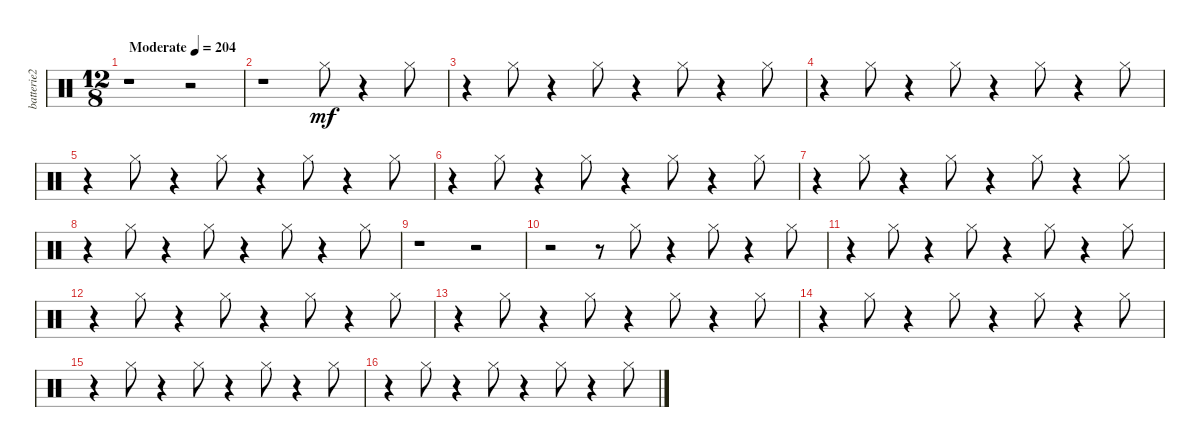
\track ("batterie2" "batterie2") {instrument percussion}
\staff {score}
\articulation defaults
\ts (12 8)
\tempo (204 "Moderate")
\clef neutral
\ks c
r.1{dy mf} r.2 |
r.1 "Hi-Hat (closed)".8 r.4 "Hi-Hat (closed)".8 |
r.4 "Hi-Hat (closed)".8 r.4 "Hi-Hat (closed)".8 r.4 "Hi-Hat (closed)".8 r.4 "Hi-Hat (closed)".8 |
r.4 "Hi-Hat (closed)".8 r.4 "Hi-Hat (closed)".8 r.4 "Hi-Hat (closed)".8 r.4 "Hi-Hat (closed)".8 |
r.4 "Hi-Hat (closed)".8 r.4 "Hi-Hat (closed)".8 r.4 "Hi-Hat (closed)".8 r.4 "Hi-Hat (closed)".8 |
r.4 "Hi-Hat (closed)".8 r.4 "Hi-Hat (closed)".8 r.4 "Hi-Hat (closed)".8 r.4 "Hi-Hat (closed)".8 |
r.4 "Hi-Hat (closed)".8 r.4 "Hi-Hat (closed)".8 r.4 "Hi-Hat (closed)".8 r.4 "Hi-Hat (closed)".8 |
r.4 "Hi-Hat (closed)".8 r.4 "Hi-Hat (closed)".8 r.4 "Hi-Hat (closed)".8 r.4 "Hi-Hat (closed)".8 |
r.1 r.2 |
r.2 r.8 "Hi-Hat (closed)".8 r.4 "Hi-Hat (closed)".8 r.4 "Hi-Hat (closed)".8 |
r.4 "Hi-Hat (closed)".8 r.4 "Hi-Hat (closed)".8 r.4 "Hi-Hat (closed)".8 r.4 "Hi-Hat (closed)".8 |
r.4 "Hi-Hat (closed)".8 r.4 "Hi-Hat (closed)".8 r.4 "Hi-Hat (closed)".8 r.4 "Hi-Hat (closed)".8 |
r.4 "Hi-Hat (closed)".8 r.4 "Hi-Hat (closed)".8 r.4 "Hi-Hat (closed)".8 r.4 "Hi-Hat (closed)".8 |
r.4 "Hi-Hat (closed)".8 r.4 "Hi-Hat (closed)".8 r.4 "Hi-Hat (closed)".8 r.4 "Hi-Hat (closed)".8 |
r.4 "Hi-Hat (closed)".8 r.4 "Hi-Hat (closed)".8 r.4 "Hi-Hat (closed)".8 r.4 "Hi-Hat (closed)".8 |
r.4 "Hi-Hat (closed)".8 r.4 "Hi-Hat (closed)".8 r.4 "Hi-Hat (closed)".8 r.4 "Hi-Hat (closed)".8
